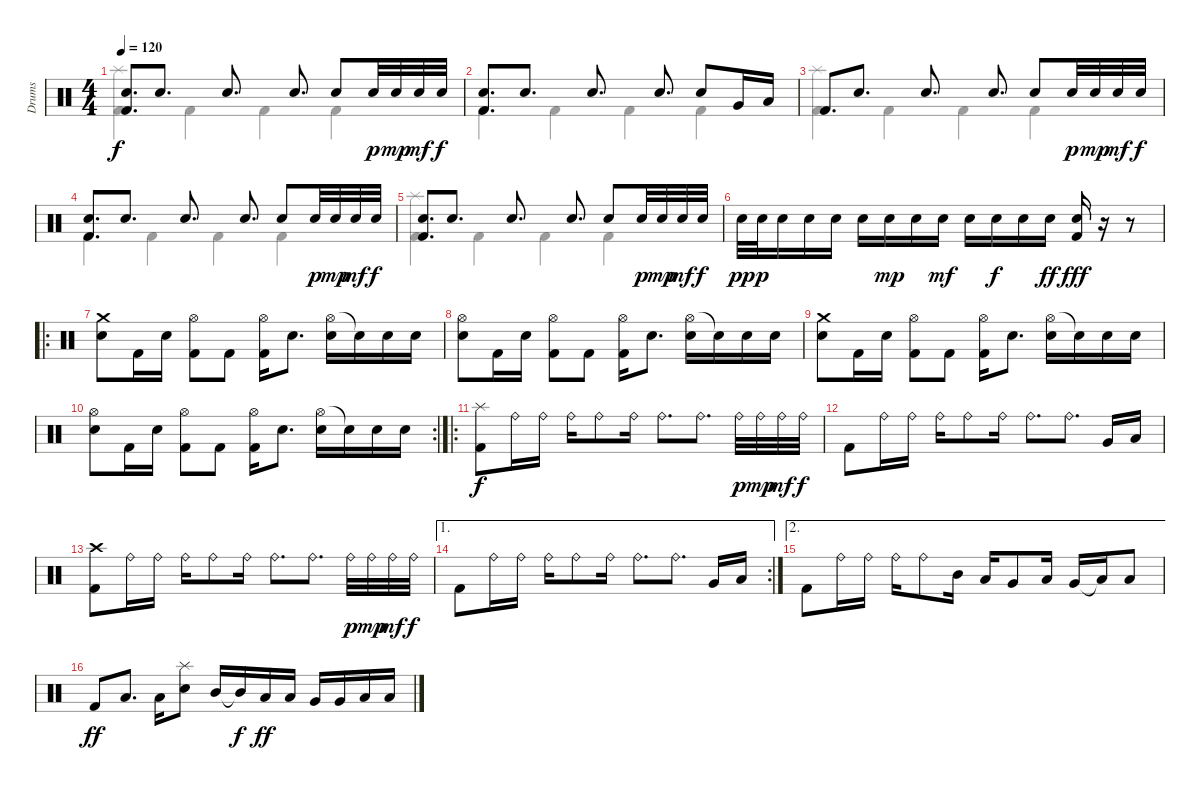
\track ("Drums" "Drums") {instrument percussion}
\staff {score}
\articulation defaults
\voice
\ts (4 4)
\tempo 120
\clef neutral
\ks c
("Electric Snare (hit)" "Kick (hit) 2").8{d dy f} "Electric Snare (hit)".8{d} "Electric Snare (hit)".8{d} "Electric Snare (hit)".8{d} "Electric Snare (hit)".8 "Electric Snare (hit)".32{dy p} "Electric Snare (hit)".32{dy mp} "Electric Snare (hit)".32{dy mf} "Electric Snare (hit)".32{dy f} |
("Electric Snare (hit)" "Kick (hit) 2").8{d} "Electric Snare (hit)".8{d} "Electric Snare (hit)".8{d} "Electric Snare (hit)".8{d} "Electric Snare (hit)".8 "Very Low Tom (hit)".16 "Low Floor Tom (hit)".16 |
"Kick (hit) 2".8{d} "Electric Snare (hit)".8{d} "Electric Snare (hit)".8{d} "Electric Snare (hit)".8{d} "Electric Snare (hit)".8 "Electric Snare (hit)".32{dy p} "Electric Snare (hit)".32{dy mp} "Electric Snare (hit)".32{dy mf} "Electric Snare (hit)".32{dy f} |
("Electric Snare (hit)" "Kick (hit) 2").8{d} "Electric Snare (hit)".8{d} "Electric Snare (hit)".8{d} "Electric Snare (hit)".8{d} "Electric Snare (hit)".8 "Electric Snare (hit)".32{dy p} "Electric Snare (hit)".32{dy mp} "Electric Snare (hit)".32{dy mf} "Electric Snare (hit)".32{dy f} |
("Electric Snare (hit)" "Kick (hit) 2").8{d} "Electric Snare (hit)".8{d} "Electric Snare (hit)".8{d} "Electric Snare (hit)".8{d} "Electric Snare (hit)".8 "Electric Snare (hit)".32{dy p} "Electric Snare (hit)".32{dy mp} "Electric Snare (hit)".32{dy mf} "Electric Snare (hit)".32{dy f} |
"Electric Snare (hit)".32{dy pp} "Electric Snare (hit)".32{dy p} "Electric Snare (hit)".16 "Electric Snare (hit)".16 "Electric Snare (hit)".16 "Electric Snare (hit)".16 "Electric Snare (hit)".16{dy mp} "Electric Snare (hit)".16 "Electric Snare (hit)".16{dy mf} "Electric Snare (hit)".16 "Electric Snare (hit)".16{dy f} "Electric Snare (hit)".16 "Electric Snare (hit)".16{dy ff} ("Electric Snare (hit)" "Kick (hit) 2").16{dy fff} r.16 r.8 |
\ro
("Crash medium (hit)" "Electric Snare (hit)").8 "Kick (hit) 2".16 "Electric Snare (hit)".16 ("Hi-Hat (open)" "Kick (hit) 2").8 "Kick (hit) 2".8 ("Hi-Hat (open)" "Kick (hit) 2").16 "Electric Snare (hit)".8{d} ("Hi-Hat (open)" "Electric Snare (hit)").16 "Electric Snare (hit)"{t}.16 "Electric Snare (hit)".16 "Electric Snare (hit)".16 |
("Hi-Hat (open)" "Electric Snare (hit)").8 "Kick (hit) 2".16 "Electric Snare (hit)".16 ("Hi-Hat (open)" "Kick (hit) 2").8 "Kick (hit) 2".8 ("Hi-Hat (open)" "Kick (hit) 2").16 "Electric Snare (hit)".8{d} ("Hi-Hat (open)" "Electric Snare (hit)").16 "Electric Snare (hit)"{t}.16 "Electric Snare (hit)".16 "Electric Snare (hit)".16 |
("Crash medium (hit)" "Electric Snare (hit)").8 "Kick (hit) 2".16 "Electric Snare (hit)".16 ("Hi-Hat (open)" "Kick (hit) 2").8 "Kick (hit) 2".8 ("Hi-Hat (open)" "Kick (hit) 2").16 "Electric Snare (hit)".8{d} ("Hi-Hat (open)" "Electric Snare (hit)").16 "Electric Snare (hit)"{t}.16 "Electric Snare (hit)".16 "Electric Snare (hit)".16 |
\rc 2
("Hi-Hat (open)" "Electric Snare (hit)").8 "Kick (hit) 2".16 "Electric Snare (hit)".16 ("Hi-Hat (open)" "Kick (hit) 2").8 "Kick (hit) 2".8 ("Hi-Hat (open)" "Kick (hit) 2").16 "Electric Snare (hit)".8{d} ("Hi-Hat (open)" "Electric Snare (hit)").16 "Electric Snare (hit)"{t}.16 "Electric Snare (hit)".16 "Electric Snare (hit)".16 |
\ro
("Splash (hit)" "Kick (hit) 2").8{dy f} "Ride (bell)".16 "Ride (bell)".16 "Ride (bell)".16 "Ride (bell)".8 "Ride (bell)".16 "Ride (bell)".8{d} "Ride (bell)".8{d} "Ride (bell)".32{dy p} "Ride (bell)".32{dy mp} "Ride (bell)".32{dy mf} "Ride (bell)".32{dy f} |
"Kick (hit) 2".8 "Ride (bell)".16 "Ride (bell)".16 "Ride (bell)".16 "Ride (bell)".8 "Ride (bell)".16 "Ride (bell)".8{d} "Ride (bell)".8{d} "Very Low Tom (hit)".16 "Low Floor Tom (hit)".16 |
("Crash high (hit)" "Kick (hit) 2").8 "Ride (bell)".16 "Ride (bell)".16 "Ride (bell)".16 "Ride (bell)".8 "Ride (bell)".16 "Ride (bell)".8{d} "Ride (bell)".8{d} "Ride (bell)".32{dy p} "Ride (bell)".32{dy mp} "Ride (bell)".32{dy mf} "Ride (bell)".32{dy f} |
\ae 1
\rc 2 "Kick (hit) 2".8 "Ride (bell)".16 "Ride (bell)".16 "Ride (bell)".16 "Ride (bell)".8 "Ride (bell)".16 "Ride (bell)".8{d} "Ride (bell)".8{d} "Very Low Tom (hit)".16 "Low Floor Tom (hit)".16
|
\ae 2 "Kick (hit) 2".8 "Ride (bell)".16 "Ride (bell)".16 "Ride (bell)".16 "Ride (bell)".8 "Mid Tom (hit)".16 "Low Tom (hit)".16 "Very Low Tom (hit)".8 "Low Tom (hit)".16 "Very Low Tom (hit)".16 "Low Floor Tom (hit)"{t}.16 "Low Floor Tom (hit)".8
|
"Kick (hit) 2".8{dy ff} "Low Tom (hit)".8{d} "Low Tom (hit)".16 ("Splash (hit)" "Electric Snare (hit)").8 "Mid Tom (hit)".16 "Mid Tom (hit)"{t}.16{dy f} "Low Tom (hit)".16{dy ff} "Low Tom (hit)".16 "Very Low Tom (hit)".16 "Very Low Tom (hit)".16 "Low Floor Tom (hit)".16 "Low Floor Tom (hit)".16
\voice
\clef neutral
\ottava regular
\simile none
\ks c
("Splash (hit)" "Kick (hit) 2").4{dy f} "Kick (hit) 2".4 "Kick (hit) 2".4 "Kick (hit) 2".4 |
"Kick (hit) 2".4 "Kick (hit) 2".4 "Kick (hit) 2".4 "Kick (hit) 2".4 |
("Splash (hit)" "Kick (hit) 2").4 "Kick (hit) 2".4 "Kick (hit) 2".4 "Kick (hit) 2".4 |
"Kick (hit) 2".4 "Kick (hit) 2".4 "Kick (hit) 2".4 "Kick (hit) 2".4 |
("Splash (hit)" "Kick (hit) 2").4 "Kick (hit) 2".4 "Kick (hit) 2".4 "Kick (hit) 2".4 |
|
|
|
|
|
|
|
|
|
|
